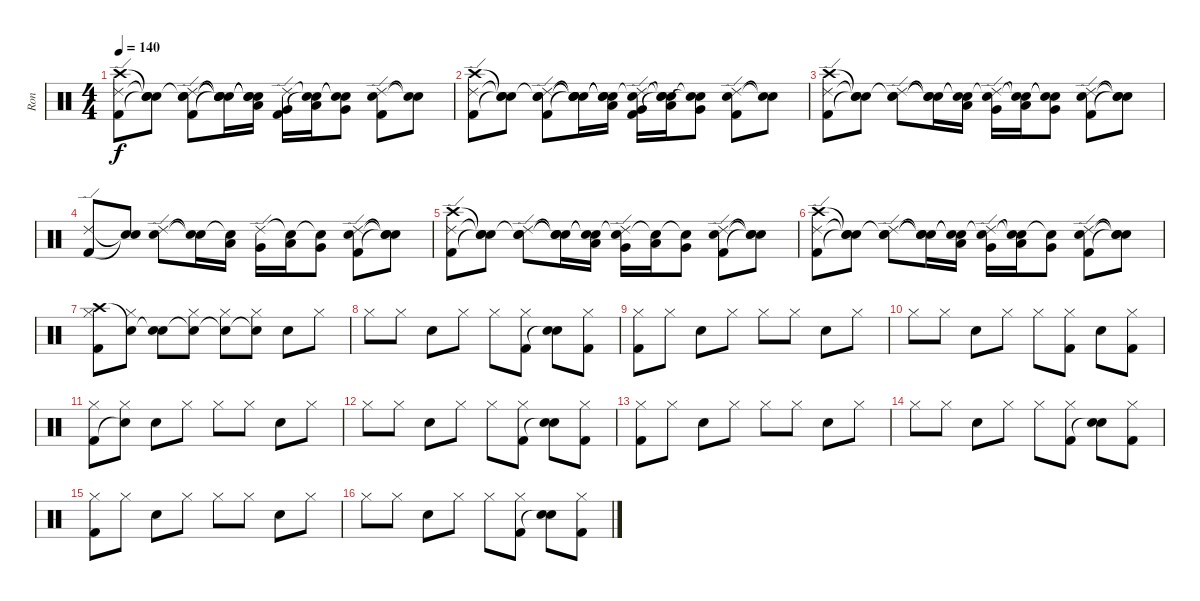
\track ("Ron" "Ron") {instrument percussion}
\staff {score}
\articulation defaults
\ts (4 4)
\tempo 140
\clef neutral
\ks c
("Crash high (hit)" "Ride (edge) 2" "Kick (hit) 2").8{dy f} ("Snare (hit)"{t} "Snare (hit)"{t} "Snare (hit)"{t}).8 ("Snare (hit)"{t} "Ride (edge) 2" "Snare (hit) 2" "Kick (hit) 2").8 ("Snare (hit)"{t} "Snare (hit)"{t} "Snare (hit)"{t} "Snare (hit)"{t}).16 ("Snare (hit)"{t} "Snare (hit)"{t} "Low Tom (hit)" "Snare (hit)"{t}).16 ("Ride (edge) 2" "Very Low Tom (hit)" "Kick (hit) 2").16 ("Snare (hit)"{t} "Low Tom (hit)" "Snare (hit)"{t}).16 ("Snare (hit)"{t} "Very Low Tom (hit)" "Snare (hit)"{t}).8 ("Ride (edge) 2" "Snare (hit) 2" "Kick (hit) 2").8 ("Snare (hit)"{t} "Snare (hit)"{t}).8 |
("Crash high (hit)" "Ride (edge) 2" "Kick (hit) 2").8 ("Snare (hit)"{t} "Snare (hit)"{t} "Snare (hit)"{t}).8 ("Snare (hit)"{t} "Ride (edge) 2" "Snare (hit) 2" "Kick (hit) 2").8 ("Snare (hit)"{t} "Snare (hit)"{t} "Snare (hit)"{t} "Snare (hit)"{t}).16 ("Snare (hit)"{t} "Snare (hit)"{t} "Low Tom (hit)" "Snare (hit)"{t}).16 ("Snare (hit)"{t} "Ride (edge) 2" "Very Low Tom (hit)" "Kick (hit) 2").16 ("Snare (hit)"{t} "Snare (hit)"{t} "Low Tom (hit)" "Snare (hit)"{t}).16 ("Snare (hit)"{t} "Very Low Tom (hit)" "Snare (hit)"{t}).8 ("Ride (edge) 2" "Snare (hit) 2" "Kick (hit) 2").8 ("Snare (hit)"{t} "Snare (hit)"{t}).8 |
("Crash high (hit)" "Ride (edge) 2" "Kick (hit) 2").8 ("Snare (hit)"{t} "Snare (hit)"{t} "Snare (hit)"{t}).8 ("Snare (hit)"{t} "Ride (edge) 2" "Snare (hit) 2").8 ("Snare (hit)"{t} "Snare (hit)"{t} "Snare (hit)"{t}).16 ("Snare (hit)"{t} "Snare (hit)"{t} "Low Tom (hit)").16 ("Snare (hit)"{t} "Ride (edge) 2" "Very Low Tom (hit)").16 ("Snare (hit)"{t} "Snare (hit)"{t} "Low Tom (hit)").16 ("Snare (hit)"{t} "Snare (hit)"{t} "Very Low Tom (hit)").8 ("Ride (edge) 2" "Snare (hit) 2" "Kick (hit) 2").8 ("Snare (hit)"{t} "Snare (hit)"{t} "Snare (hit)"{t}).8 |
("Ride (edge) 2" "Kick (hit) 2").8 ("Snare (hit)"{t} "Snare (hit)"{t}).8 ("Ride (edge) 2" "Snare (hit) 2").8 ("Snare (hit)"{t} "Snare (hit)"{t}).16 ("Snare (hit)"{t} "Low Tom (hit)").16 ("Ride (edge) 2" "Very Low Tom (hit)").16 ("Snare (hit)"{t} "Low Tom (hit)").16 ("Snare (hit)"{t} "Very Low Tom (hit)").8 ("Ride (edge) 2" "Snare (hit) 2" "Kick (hit) 2").8 ("Snare (hit)"{t} "Snare (hit)"{t} "Snare (hit)"{t}).8 |
("Crash high (hit)" "Ride (edge) 2" "Kick (hit) 2").8 ("Snare (hit)"{t} "Snare (hit)"{t} "Snare (hit)"{t}).8 ("Snare (hit)"{t} "Ride (edge) 2" "Snare (hit) 2").8 ("Snare (hit)"{t} "Snare (hit)"{t} "Snare (hit)"{t}).16 ("Snare (hit)"{t} "Snare (hit)"{t} "Low Tom (hit)").16 ("Snare (hit)"{t} "Ride (edge) 2" "Very Low Tom (hit)").16 ("Snare (hit)"{t} "Low Tom (hit)").16 ("Snare (hit)"{t} "Very Low Tom (hit)").8 ("Ride (edge) 2" "Snare (hit) 2" "Kick (hit) 2").8 ("Snare (hit)"{t} "Snare (hit)"{t} "Snare (hit)"{t}).8 |
("Crash high (hit)" "Ride (edge) 2" "Kick (hit) 2").8 ("Snare (hit)"{t} "Snare (hit)"{t} "Snare (hit)"{t}).8 ("Snare (hit)"{t} "Ride (edge) 2" "Snare (hit) 2").8 ("Snare (hit)"{t} "Snare (hit)"{t} "Snare (hit)"{t}).16 ("Snare (hit)"{t} "Snare (hit)"{t} "Low Tom (hit)").16 ("Snare (hit)"{t} "Ride (edge) 2" "Very Low Tom (hit)").16 ("Snare (hit)"{t} "Snare (hit)"{t} "Low Tom (hit)").16 ("Snare (hit)"{t} "Very Low Tom (hit)").8 ("Ride (edge) 2" "Snare (hit) 2" "Kick (hit) 2").8 ("Snare (hit)"{t} "Snare (hit)"{t} "Snare (hit)"{t}).8 |
("Crash high (hit)" "Hi-Hat (closed)" "Kick (hit) 2").8 ("Snare (hit)"{t} "Hi-Hat (closed)").8 ("Snare (hit)"{t} "Electric Snare (hit)").8 ("Snare (hit)"{t} "Hi-Hat (closed)").8 ("Snare (hit)"{t} "Hi-Hat (closed)").8 ("Snare (hit)"{t} "Hi-Hat (closed)").8 "Electric Snare (hit)".8 "Hi-Hat (closed)".8 |
"Hi-Hat (closed)".8 "Hi-Hat (closed)".8 "Electric Snare (hit)".8 "Hi-Hat (closed)".8 "Hi-Hat (closed)".8 ("Hi-Hat (closed)" "Kick (hit) 2").8 ("Electric Snare (hit)" "Snare (hit)"{t}).8 ("Hi-Hat (closed)" "Kick (hit) 2").8 |
("Hi-Hat (closed)" "Kick (hit) 2").8 "Hi-Hat (closed)".8 "Electric Snare (hit)".8 "Hi-Hat (closed)".8 "Hi-Hat (closed)".8 "Hi-Hat (closed)".8 "Electric Snare (hit)".8 "Hi-Hat (closed)".8 |
"Hi-Hat (closed)".8 "Hi-Hat (closed)".8 "Electric Snare (hit)".8 "Hi-Hat (closed)".8 "Hi-Hat (closed)".8 ("Hi-Hat (closed)" "Kick (hit) 2").8 "Electric Snare (hit)".8 ("Hi-Hat (closed)" "Kick (hit) 2").8 |
("Hi-Hat (closed)" "Kick (hit) 2").8 ("Hi-Hat (closed)" "Snare (hit)"{t}).8 "Electric Snare (hit)".8 "Hi-Hat (closed)".8 "Hi-Hat (closed)".8 "Hi-Hat (closed)".8 "Electric Snare (hit)".8 "Hi-Hat (closed)".8 |
"Hi-Hat (closed)".8 "Hi-Hat (closed)".8 "Electric Snare (hit)".8 "Hi-Hat (closed)".8 "Hi-Hat (closed)".8 ("Hi-Hat (closed)" "Kick (hit) 2").8 ("Electric Snare (hit)" "Snare (hit)"{t}).8 ("Hi-Hat (closed)" "Kick (hit) 2").8 |
("Hi-Hat (closed)" "Kick (hit) 2").8 "Hi-Hat (closed)".8 "Electric Snare (hit)".8 "Hi-Hat (closed)".8 "Hi-Hat (closed)".8 "Hi-Hat (closed)".8 "Electric Snare (hit)".8 "Hi-Hat (closed)".8 |
"Hi-Hat (closed)".8 "Hi-Hat (closed)".8 "Electric Snare (hit)".8 "Hi-Hat (closed)".8 "Hi-Hat (closed)".8 ("Hi-Hat (closed)" "Kick (hit) 2").8 ("Electric Snare (hit)" "Snare (hit)"{t}).8 ("Hi-Hat (closed)" "Kick (hit) 2").8 |
("Hi-Hat (closed)" "Kick (hit) 2").8 "Hi-Hat (closed)".8 "Electric Snare (hit)".8 "Hi-Hat (closed)".8 "Hi-Hat (closed)".8 "Hi-Hat (closed)".8 "Electric Snare (hit)".8 "Hi-Hat (closed)".8 |
"Hi-Hat (closed)".8 "Hi-Hat (closed)".8 "Electric Snare (hit)".8 "Hi-Hat (closed)".8 "Hi-Hat (closed)".8 ("Hi-Hat (closed)" "Kick (hit) 2").8 ("Electric Snare (hit)" "Snare (hit)"{t}).8 ("Hi-Hat (closed)" "Kick (hit) 2").8
